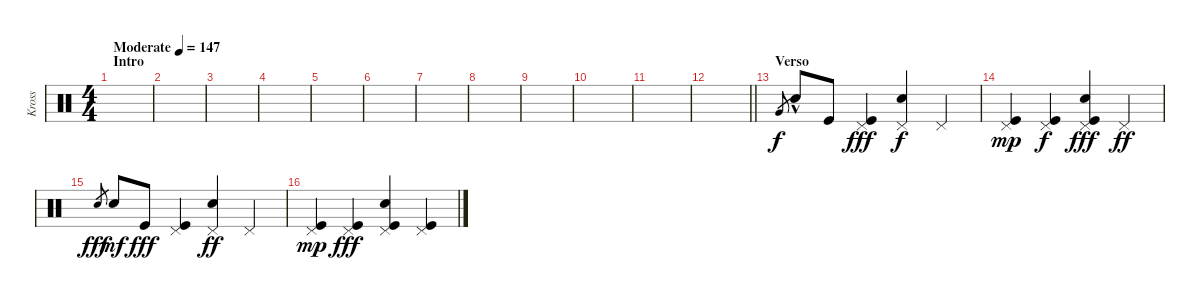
\track ("Kross" "Kross") {instrument percussion}
\staff {score}
\articulation defaults
\ts (4 4)
\section ("" "Intro")
\tempo (147 "Moderate")
\clef neutral
\ks c
|
|
|
|
|
|
|
|
|
|
|
\barLineRight lightlight
|
\section ("" "Verso")
"Very Low Tom (hit)"{h}.8{gr} "Electric Snare (hit)"{hac}.8 "Kick (hit)".8{dy f} ("Pedal Hi-Hat (hit)" "Kick (hit)").4{dy fff} ("Snare (hit) 2" "Pedal Hi-Hat (hit)").4{dy f} "Pedal Hi-Hat (hit)".4 |
("Kick (hit)" "Pedal Hi-Hat (hit)").4{dy mp} ("Kick (hit)" "Pedal Hi-Hat (hit)").4{dy f} ("Kick (hit)" "Snare (hit) 2" "Pedal Hi-Hat (hit)").4{dy fff} "Pedal Hi-Hat (hit)".4{dy ff} |
"Electric Snare (hit)".8{gr dy fff} "Electric Snare (hit)".8{dy mf} "Kick (hit)".8{dy fff} ("Pedal Hi-Hat (hit)" "Kick (hit)").4 ("Snare (hit) 2" "Pedal Hi-Hat (hit)").4{dy ff} "Pedal Hi-Hat (hit)".4 |
("Kick (hit)" "Pedal Hi-Hat (hit)").4{dy mp} ("Kick (hit)" "Pedal Hi-Hat (hit)").4{dy fff} ("Kick (hit)" "Snare (hit) 2" "Pedal Hi-Hat (hit)").4 ("Pedal Hi-Hat (hit)" "Kick (hit)").4
